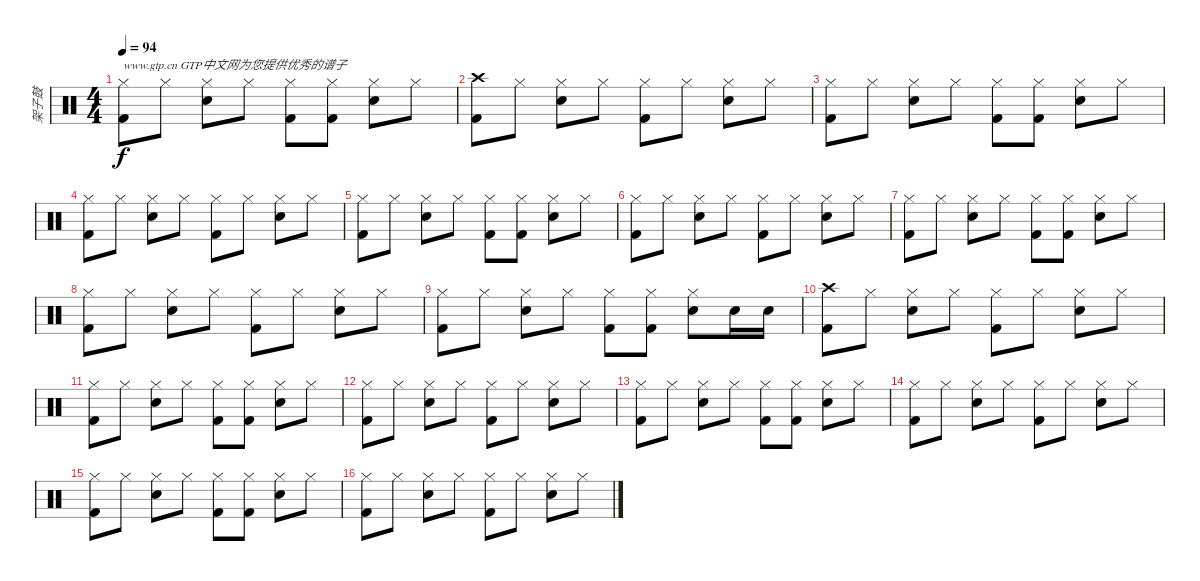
\track ("架子鼓" "架子鼓") {instrument percussion}
\staff {score}
\articulation defaults
\ts (4 4)
\tempo 94
\clef neutral
\ks c
("Kick (hit) 2" "Hi-Hat (closed)").8{txt "www.gtp.cn GTP中文网为您提供优秀的谱子" dy f} "Hi-Hat (closed)".8 ("Hi-Hat (closed)" "Electric Snare (hit)").8 "Hi-Hat (closed)".8 ("Kick (hit) 2" "Hi-Hat (closed)").8 ("Kick (hit) 2" "Hi-Hat (closed)").8 ("Hi-Hat (closed)" "Electric Snare (hit)").8 "Hi-Hat (closed)".8 |
("Kick (hit) 2" "Crash high (hit)").8 "Hi-Hat (closed)".8 ("Hi-Hat (closed)" "Electric Snare (hit)").8 "Hi-Hat (closed)".8 ("Kick (hit) 2" "Hi-Hat (closed)").8 "Hi-Hat (closed)".8 ("Hi-Hat (closed)" "Electric Snare (hit)").8 "Hi-Hat (closed)".8 |
("Kick (hit) 2" "Hi-Hat (closed)").8 "Hi-Hat (closed)".8 ("Hi-Hat (closed)" "Electric Snare (hit)").8 "Hi-Hat (closed)".8 ("Kick (hit) 2" "Hi-Hat (closed)").8 ("Kick (hit) 2" "Hi-Hat (closed)").8 ("Hi-Hat (closed)" "Electric Snare (hit)").8 "Hi-Hat (closed)".8 |
("Kick (hit) 2" "Hi-Hat (closed)").8 "Hi-Hat (closed)".8 ("Hi-Hat (closed)" "Electric Snare (hit)").8 "Hi-Hat (closed)".8 ("Kick (hit) 2" "Hi-Hat (closed)").8 "Hi-Hat (closed)".8 ("Hi-Hat (closed)" "Electric Snare (hit)").8 "Hi-Hat (closed)".8 |
("Kick (hit) 2" "Hi-Hat (closed)").8 "Hi-Hat (closed)".8 ("Hi-Hat (closed)" "Electric Snare (hit)").8 "Hi-Hat (closed)".8 ("Kick (hit) 2" "Hi-Hat (closed)").8 ("Kick (hit) 2" "Hi-Hat (closed)").8 ("Hi-Hat (closed)" "Electric Snare (hit)").8 "Hi-Hat (closed)".8 |
("Kick (hit) 2" "Hi-Hat (closed)").8 "Hi-Hat (closed)".8 ("Hi-Hat (closed)" "Electric Snare (hit)").8 "Hi-Hat (closed)".8 ("Kick (hit) 2" "Hi-Hat (closed)").8 "Hi-Hat (closed)".8 ("Hi-Hat (closed)" "Electric Snare (hit)").8 "Hi-Hat (closed)".8 |
("Kick (hit) 2" "Hi-Hat (closed)").8 "Hi-Hat (closed)".8 ("Hi-Hat (closed)" "Electric Snare (hit)").8 "Hi-Hat (closed)".8 ("Kick (hit) 2" "Hi-Hat (closed)").8 ("Kick (hit) 2" "Hi-Hat (closed)").8 ("Hi-Hat (closed)" "Electric Snare (hit)").8 "Hi-Hat (closed)".8 |
("Kick (hit) 2" "Hi-Hat (closed)").8 "Hi-Hat (closed)".8 ("Hi-Hat (closed)" "Electric Snare (hit)").8 "Hi-Hat (closed)".8 ("Kick (hit) 2" "Hi-Hat (closed)").8 "Hi-Hat (closed)".8 ("Hi-Hat (closed)" "Electric Snare (hit)").8 "Hi-Hat (closed)".8 |
("Kick (hit) 2" "Hi-Hat (closed)").8 "Hi-Hat (closed)".8 ("Hi-Hat (closed)" "Electric Snare (hit)").8 "Hi-Hat (closed)".8 ("Kick (hit) 2" "Hi-Hat (closed)").8 ("Kick (hit) 2" "Hi-Hat (closed)").8 ("Hi-Hat (closed)" "Electric Snare (hit)").8 "Electric Snare (hit)".16 "Electric Snare (hit)".16 |
("Kick (hit) 2" "Crash high (hit)").8 "Hi-Hat (closed)".8 ("Hi-Hat (closed)" "Electric Snare (hit)").8 "Hi-Hat (closed)".8 ("Kick (hit) 2" "Hi-Hat (closed)").8 "Hi-Hat (closed)".8 ("Hi-Hat (closed)" "Electric Snare (hit)").8 "Hi-Hat (closed)".8 |
("Kick (hit) 2" "Hi-Hat (closed)").8 "Hi-Hat (closed)".8 ("Hi-Hat (closed)" "Electric Snare (hit)").8 "Hi-Hat (closed)".8 ("Kick (hit) 2" "Hi-Hat (closed)").8 ("Kick (hit) 2" "Hi-Hat (closed)").8 ("Hi-Hat (closed)" "Electric Snare (hit)").8 "Hi-Hat (closed)".8 |
("Kick (hit) 2" "Hi-Hat (closed)").8 "Hi-Hat (closed)".8 ("Hi-Hat (closed)" "Electric Snare (hit)").8 "Hi-Hat (closed)".8 ("Kick (hit) 2" "Hi-Hat (closed)").8 "Hi-Hat (closed)".8 ("Hi-Hat (closed)" "Electric Snare (hit)").8 "Hi-Hat (closed)".8 |
("Kick (hit) 2" "Hi-Hat (closed)").8 "Hi-Hat (closed)".8 ("Hi-Hat (closed)" "Electric Snare (hit)").8 "Hi-Hat (closed)".8 ("Kick (hit) 2" "Hi-Hat (closed)").8 ("Kick (hit) 2" "Hi-Hat (closed)").8 ("Hi-Hat (closed)" "Electric Snare (hit)").8 "Hi-Hat (closed)".8 |
("Kick (hit) 2" "Hi-Hat (closed)").8 "Hi-Hat (closed)".8 ("Hi-Hat (closed)" "Electric Snare (hit)").8 "Hi-Hat (closed)".8 ("Kick (hit) 2" "Hi-Hat (closed)").8 "Hi-Hat (closed)".8 ("Hi-Hat (closed)" "Electric Snare (hit)").8 "Hi-Hat (closed)".8 |
("Kick (hit) 2" "Hi-Hat (closed)").8 "Hi-Hat (closed)".8 ("Hi-Hat (closed)" "Electric Snare (hit)").8 "Hi-Hat (closed)".8 ("Kick (hit) 2" "Hi-Hat (closed)").8 ("Kick (hit) 2" "Hi-Hat (closed)").8 ("Hi-Hat (closed)" "Electric Snare (hit)").8 "Hi-Hat (closed)".8 |
("Kick (hit) 2" "Hi-Hat (closed)").8 "Hi-Hat (closed)".8 ("Hi-Hat (closed)" "Electric Snare (hit)").8 "Hi-Hat (closed)".8 ("Kick (hit) 2" "Hi-Hat (closed)").8 "Hi-Hat (closed)".8 ("Hi-Hat (closed)" "Electric Snare (hit)").8 "Hi-Hat (closed)".8
